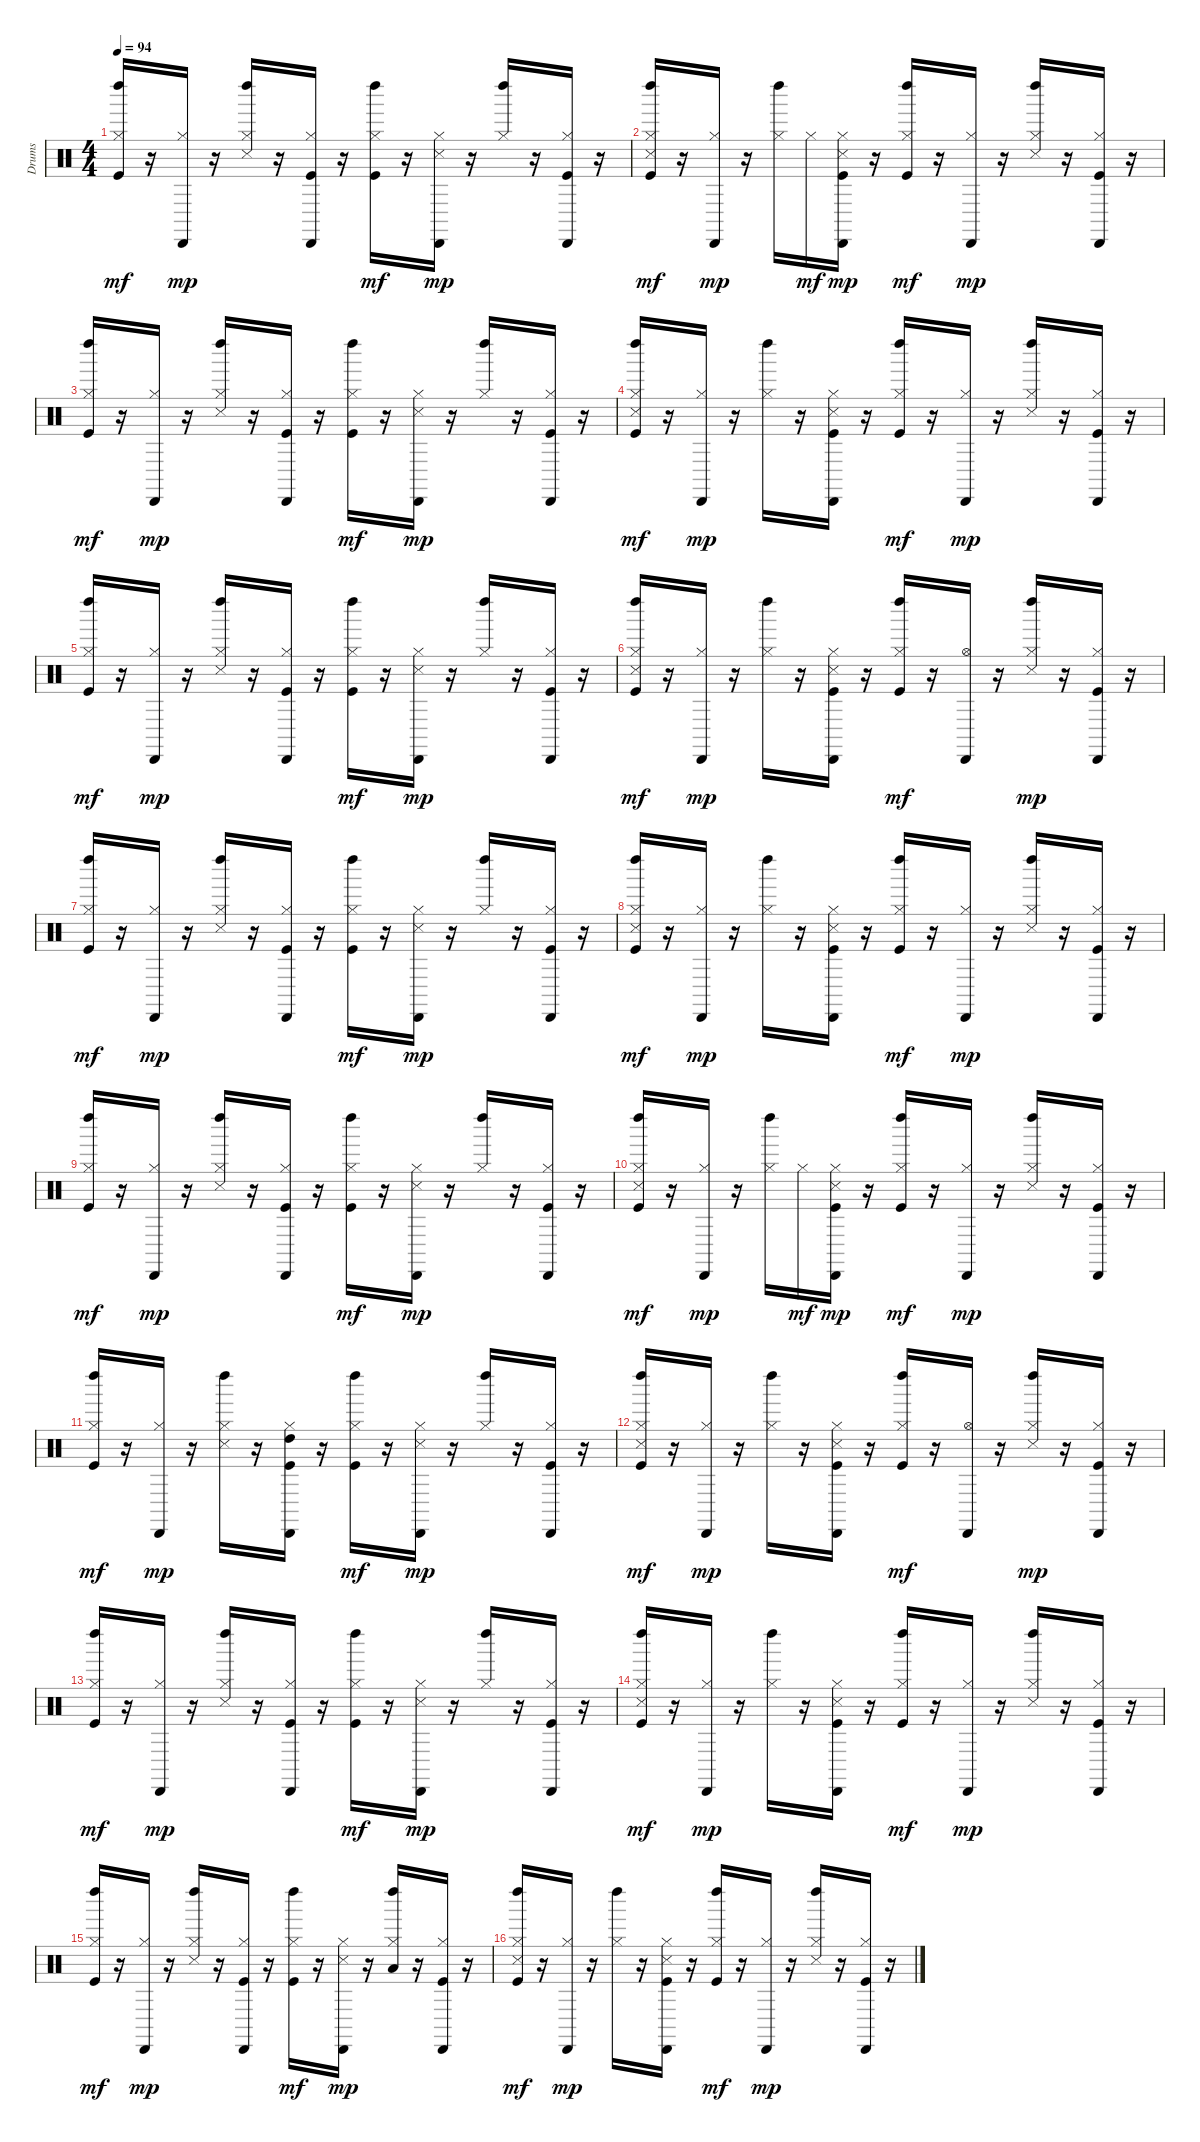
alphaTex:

\track ("Drums" "Drums") {instrument percussion}
\staff {score}
\articulation defaults
\ts (4 4)
\tempo 94
\clef neutral
\ks c
("Left Maraca (hit)" "Hi-Hat (closed)" "Kick (hit)").16{dy mf} r.16 ("Cabasa (hit)" "Hi-Hat (closed)").16{dy mp} r.16 ("Left Maraca (hit)" "Hi-Hat (closed)" "Snare (side stick) 3").16 r.16 ("Cabasa (hit)" "Hi-Hat (closed)" "Kick (hit)").16 r.16 ("Left Maraca (hit)" "Hi-Hat (closed)" "Kick (hit)").16{dy mf} r.16 ("Cabasa (hit)" "Hi-Hat (closed)" "Snare (side stick) 3").16{dy mp} r.16 ("Left Maraca (hit)" "Hi-Hat (closed)").16 r.16 ("Cabasa (hit)" "Hi-Hat (closed)" "Kick (hit)").16 r.16 |
("Left Maraca (hit)" "Hi-Hat (closed)" "Snare (side stick) 3" "Kick (hit)").16{dy mf} r.16 ("Cabasa (hit)" "Hi-Hat (closed)").16{dy mp} r.16 ("Left Maraca (hit)" "Hi-Hat (closed)").16 "Hi-Hat (closed)".16{dy mf} ("Cabasa (hit)" "Hi-Hat (closed)" "Snare (side stick) 3" "Kick (hit)").16{dy mp} r.16 ("Left Maraca (hit)" "Hi-Hat (closed)" "Kick (hit)").16{dy mf} r.16 ("Cabasa (hit)" "Hi-Hat (closed)").16{dy mp} r.16 ("Left Maraca (hit)" "Hi-Hat (closed)" "Snare (side stick) 3").16 r.16 ("Cabasa (hit)" "Hi-Hat (closed)" "Kick (hit)").16 r.16 |
("Left Maraca (hit)" "Hi-Hat (closed)" "Kick (hit)").16{dy mf} r.16 ("Cabasa (hit)" "Hi-Hat (closed)").16{dy mp} r.16 ("Left Maraca (hit)" "Hi-Hat (closed)" "Snare (side stick) 3").16 r.16 ("Cabasa (hit)" "Hi-Hat (closed)" "Kick (hit)").16 r.16 ("Left Maraca (hit)" "Hi-Hat (closed)" "Kick (hit)").16{dy mf} r.16 ("Cabasa (hit)" "Hi-Hat (closed)" "Snare (side stick) 3").16{dy mp} r.16 ("Left Maraca (hit)" "Hi-Hat (closed)").16 r.16 ("Cabasa (hit)" "Hi-Hat (closed)" "Kick (hit)").16 r.16 |
("Left Maraca (hit)" "Hi-Hat (closed)" "Snare (side stick) 3" "Kick (hit)").16{dy mf} r.16 ("Cabasa (hit)" "Hi-Hat (closed)").16{dy mp} r.16 ("Left Maraca (hit)" "Hi-Hat (closed)").16 r.16 ("Cabasa (hit)" "Hi-Hat (closed)" "Snare (side stick) 3" "Kick (hit)").16 r.16 ("Left Maraca (hit)" "Hi-Hat (closed)" "Kick (hit)").16{dy mf} r.16 ("Cabasa (hit)" "Hi-Hat (closed)").16{dy mp} r.16 ("Left Maraca (hit)" "Hi-Hat (closed)" "Snare (side stick) 3").16 r.16 ("Cabasa (hit)" "Hi-Hat (closed)" "Kick (hit)").16 r.16 |
("Left Maraca (hit)" "Hi-Hat (closed)" "Kick (hit)").16{dy mf} r.16 ("Cabasa (hit)" "Hi-Hat (closed)").16{dy mp} r.16 ("Left Maraca (hit)" "Hi-Hat (closed)" "Snare (side stick) 3").16 r.16 ("Cabasa (hit)" "Hi-Hat (closed)" "Kick (hit)").16 r.16 ("Left Maraca (hit)" "Hi-Hat (closed)" "Kick (hit)").16{dy mf} r.16 ("Cabasa (hit)" "Hi-Hat (closed)" "Snare (side stick) 3").16{dy mp} r.16 ("Left Maraca (hit)" "Hi-Hat (closed)").16 r.16 ("Cabasa (hit)" "Hi-Hat (closed)" "Kick (hit)").16 r.16 |
("Left Maraca (hit)" "Hi-Hat (closed)" "Snare (side stick) 3" "Kick (hit)").16{dy mf} r.16 ("Cabasa (hit)" "Hi-Hat (closed)").16{dy mp} r.16 ("Left Maraca (hit)" "Hi-Hat (closed)").16 r.16 ("Cabasa (hit)" "Hi-Hat (closed)" "Snare (side stick) 3" "Kick (hit)").16 r.16 ("Left Maraca (hit)" "Hi-Hat (closed)" "Kick (hit)").16{dy mf} r.16 ("Cabasa (hit)" "Hi-Hat (open)").16 r.16 ("Left Maraca (hit)" "Hi-Hat (closed)" "Snare (side stick) 3").16{dy mp} r.16 ("Cabasa (hit)" "Hi-Hat (closed)" "Kick (hit)").16 r.16 |
("Left Maraca (hit)" "Hi-Hat (closed)" "Kick (hit)").16{dy mf} r.16 ("Cabasa (hit)" "Hi-Hat (closed)").16{dy mp} r.16 ("Left Maraca (hit)" "Hi-Hat (closed)" "Snare (side stick) 3").16 r.16 ("Cabasa (hit)" "Hi-Hat (closed)" "Kick (hit)").16 r.16 ("Left Maraca (hit)" "Hi-Hat (closed)" "Kick (hit)").16{dy mf} r.16 ("Cabasa (hit)" "Hi-Hat (closed)" "Snare (side stick) 3").16{dy mp} r.16 ("Left Maraca (hit)" "Hi-Hat (closed)").16 r.16 ("Cabasa (hit)" "Hi-Hat (closed)" "Kick (hit)").16 r.16 |
("Left Maraca (hit)" "Hi-Hat (closed)" "Snare (side stick) 3" "Kick (hit)").16{dy mf} r.16 ("Cabasa (hit)" "Hi-Hat (closed)").16{dy mp} r.16 ("Left Maraca (hit)" "Hi-Hat (closed)").16 r.16 ("Cabasa (hit)" "Hi-Hat (closed)" "Snare (side stick) 3" "Kick (hit)").16 r.16 ("Left Maraca (hit)" "Hi-Hat (closed)" "Kick (hit)").16{dy mf} r.16 ("Cabasa (hit)" "Hi-Hat (closed)").16{dy mp} r.16 ("Left Maraca (hit)" "Hi-Hat (closed)" "Snare (side stick) 3").16 r.16 ("Cabasa (hit)" "Hi-Hat (closed)" "Kick (hit)").16 r.16 |
("Left Maraca (hit)" "Hi-Hat (closed)" "Kick (hit)").16{dy mf} r.16 ("Cabasa (hit)" "Hi-Hat (closed)").16{dy mp} r.16 ("Left Maraca (hit)" "Hi-Hat (closed)" "Snare (side stick) 3").16 r.16 ("Cabasa (hit)" "Hi-Hat (closed)" "Kick (hit)").16 r.16 ("Left Maraca (hit)" "Hi-Hat (closed)" "Kick (hit)").16{dy mf} r.16 ("Cabasa (hit)" "Hi-Hat (closed)" "Snare (side stick) 3").16{dy mp} r.16 ("Left Maraca (hit)" "Hi-Hat (closed)").16 r.16 ("Cabasa (hit)" "Hi-Hat (closed)" "Kick (hit)").16 r.16 |
("Left Maraca (hit)" "Hi-Hat (closed)" "Snare (side stick) 3" "Kick (hit)").16{dy mf} r.16 ("Cabasa (hit)" "Hi-Hat (closed)").16{dy mp} r.16 ("Left Maraca (hit)" "Hi-Hat (closed)").16 "Hi-Hat (closed)".16{dy mf} ("Cabasa (hit)" "Hi-Hat (closed)" "Snare (side stick) 3" "Kick (hit)").16{dy mp} r.16 ("Left Maraca (hit)" "Hi-Hat (closed)" "Kick (hit)").16{dy mf} r.16 ("Cabasa (hit)" "Hi-Hat (closed)").16{dy mp} r.16 ("Left Maraca (hit)" "Hi-Hat (closed)" "Snare (side stick) 3").16 r.16 ("Cabasa (hit)" "Hi-Hat (closed)" "Kick (hit)").16 r.16 |
("Left Maraca (hit)" "Hi-Hat (closed)" "Kick (hit)").16{dy mf} r.16 ("Cabasa (hit)" "Hi-Hat (closed)").16{dy mp} r.16 ("Left Maraca (hit)" "Hi-Hat (closed)" "Snare (side stick) 3").16 r.16 ("Cabasa (hit)" "High Tom (hit)" "Hi-Hat (closed)" "Kick (hit)").16 r.16 ("Left Maraca (hit)" "Hi-Hat (closed)" "Kick (hit)").16{dy mf} r.16 ("Cabasa (hit)" "Hi-Hat (closed)" "Snare (side stick) 3").16{dy mp} r.16 ("Left Maraca (hit)" "Hi-Hat (closed)").16 r.16 ("Cabasa (hit)" "Hi-Hat (closed)" "Kick (hit)").16 r.16 |
("Left Maraca (hit)" "Hi-Hat (closed)" "Snare (side stick) 3" "Kick (hit)").16{dy mf} r.16 ("Cabasa (hit)" "Hi-Hat (closed)").16{dy mp} r.16 ("Left Maraca (hit)" "Hi-Hat (closed)").16 r.16 ("Cabasa (hit)" "Hi-Hat (closed)" "Snare (side stick) 3" "Kick (hit)").16 r.16 ("Left Maraca (hit)" "Hi-Hat (closed)" "Kick (hit)").16{dy mf} r.16 ("Cabasa (hit)" "Hi-Hat (open)").16 r.16 ("Left Maraca (hit)" "Hi-Hat (closed)" "Snare (side stick) 3").16{dy mp} r.16 ("Cabasa (hit)" "Hi-Hat (closed)" "Kick (hit)").16 r.16 |
("Left Maraca (hit)" "Hi-Hat (closed)" "Kick (hit)").16{dy mf} r.16 ("Cabasa (hit)" "Hi-Hat (closed)").16{dy mp} r.16 ("Left Maraca (hit)" "Hi-Hat (closed)" "Snare (side stick) 3").16 r.16 ("Cabasa (hit)" "Hi-Hat (closed)" "Kick (hit)").16 r.16 ("Left Maraca (hit)" "Hi-Hat (closed)" "Kick (hit)").16{dy mf} r.16 ("Cabasa (hit)" "Hi-Hat (closed)" "Snare (side stick) 3").16{dy mp} r.16 ("Left Maraca (hit)" "Hi-Hat (closed)").16 r.16 ("Cabasa (hit)" "Hi-Hat (closed)" "Kick (hit)").16 r.16 |
("Left Maraca (hit)" "Hi-Hat (closed)" "Snare (side stick) 3" "Kick (hit)").16{dy mf} r.16 ("Cabasa (hit)" "Hi-Hat (closed)").16{dy mp} r.16 ("Left Maraca (hit)" "Hi-Hat (closed)").16 r.16 ("Cabasa (hit)" "Hi-Hat (closed)" "Snare (side stick) 3" "Kick (hit)").16 r.16 ("Left Maraca (hit)" "Hi-Hat (closed)" "Kick (hit)").16{dy mf} r.16 ("Cabasa (hit)" "Hi-Hat (closed)").16{dy mp} r.16 ("Left Maraca (hit)" "Hi-Hat (closed)" "Snare (side stick) 3").16 r.16 ("Cabasa (hit)" "Hi-Hat (closed)" "Kick (hit)").16 r.16 |
("Left Maraca (hit)" "Hi-Hat (closed)" "Kick (hit)").16{dy mf} r.16 ("Cabasa (hit)" "Hi-Hat (closed)").16{dy mp} r.16 ("Left Maraca (hit)" "Hi-Hat (closed)" "Snare (side stick) 3").16 r.16 ("Cabasa (hit)" "Hi-Hat (closed)" "Kick (hit)").16 r.16 ("Left Maraca (hit)" "Hi-Hat (closed)" "Kick (hit)").16{dy mf} r.16 ("Cabasa (hit)" "Hi-Hat (closed)" "Snare (side stick) 3").16{dy mp} r.16 ("Left Maraca (hit)" "Low Tom (hit)" "Hi-Hat (closed)").16 r.16 ("Cabasa (hit)" "Hi-Hat (closed)" "Kick (hit)").16 r.16 |
("Left Maraca (hit)" "Hi-Hat (closed)" "Snare (side stick) 3" "Kick (hit)").16{dy mf} r.16 ("Cabasa (hit)" "Hi-Hat (closed)").16{dy mp} r.16 ("Left Maraca (hit)" "Hi-Hat (closed)").16 r.16 ("Cabasa (hit)" "Hi-Hat (closed)" "Snare (side stick) 3" "Kick (hit)").16 r.16 ("Left Maraca (hit)" "Hi-Hat (closed)" "Kick (hit)").16{dy mf} r.16 ("Cabasa (hit)" "Hi-Hat (closed)").16{dy mp} r.16 ("Left Maraca (hit)" "Hi-Hat (closed)" "Snare (side stick) 3").16 r.16 ("Cabasa (hit)" "Hi-Hat (closed)" "Kick (hit)").16 r.16
